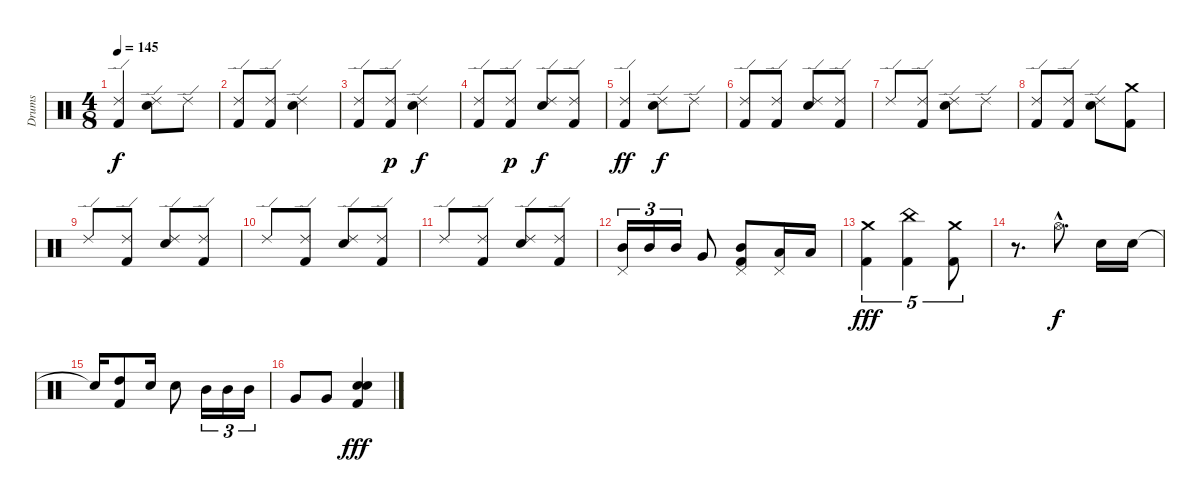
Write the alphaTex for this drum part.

\track ("Drums" "Drums") {instrument percussion}
\staff {score}
\articulation defaults
\ts (4 8)
\tempo 145
\clef neutral
\ks c
("Ride (edge) 2" "Kick (hit) 2").4{dy f} ("Ride (edge) 2" "Snare (hit) 2").8 "Ride (edge) 2".8 |
("Ride (edge) 2" "Kick (hit) 2").8 ("Ride (edge) 2" "Kick (hit) 2").8 ("Ride (edge) 2" "Snare (hit) 2").4 |
("Ride (edge) 2" "Kick (hit) 2").8 ("Ride (edge) 2" "Kick (hit) 2").8{dy p} ("Ride (edge) 2" "Snare (hit) 2").4{dy f} |
("Ride (edge) 2" "Kick (hit) 2").8 ("Ride (edge) 2" "Kick (hit) 2").8{dy p} ("Ride (edge) 2" "Snare (hit) 2").8{dy f} ("Ride (edge) 2" "Kick (hit) 2").8 |
("Ride (edge) 2" "Kick (hit) 2").4{dy ff} ("Ride (edge) 2" "Snare (hit) 2").8{dy f} "Ride (edge) 2".8 |
("Ride (edge) 2" "Kick (hit) 2").8 ("Ride (edge) 2" "Kick (hit) 2").8 ("Ride (edge) 2" "Snare (hit) 2").8 ("Ride (edge) 2" "Kick (hit) 2").8 |
"Ride (edge) 2".8 ("Ride (edge) 2" "Kick (hit) 2").8 ("Ride (edge) 2" "Snare (hit) 2").8 "Ride (edge) 2".8 |
("Ride (edge) 2" "Kick (hit) 2").8 ("Ride (edge) 2" "Kick (hit) 2").8 ("Ride (edge) 2" "Snare (hit) 2").8 ("Crash medium (hit)" "Kick (hit) 2").8 |
"Ride (edge) 2".8 ("Ride (edge) 2" "Kick (hit) 2").8 ("Ride (edge) 2" "Snare (hit) 2").8 ("Ride (edge) 2" "Kick (hit) 2").8 |
"Ride (edge) 2".8 ("Ride (edge) 2" "Kick (hit) 2").8 ("Ride (edge) 2" "Snare (hit) 2").8 ("Ride (edge) 2" "Kick (hit) 2").8 |
"Ride (edge) 2".8 ("Ride (edge) 2" "Kick (hit) 2").8 ("Ride (edge) 2" "Snare (hit) 2").8 ("Ride (edge) 2" "Kick (hit) 2").8 |
("Mid Tom (hit)" "Pedal Hi-Hat (hit)").16{tu (3 2)} "Mid Tom (hit)".16{tu (3 2)} "Mid Tom (hit)".16{tu (3 2)} "Very Low Tom (hit)".8 ("Mid Tom (hit)" "Pedal Hi-Hat (hit)" "Kick (hit) 2").8 ("Low Tom (hit)" "Pedal Hi-Hat (hit)").16 "Low Tom (hit)".16 |
("Crash medium (hit)" "Kick (hit) 2").4{tu (5 4) dy fff} ("China (hit)" "Kick (hit) 2").4{tu (5 4)} ("Crash medium (hit)" "Kick (hit) 2").8{tu (5 4)} |
r.8{d} "Hi-Hat (open)"{hac}.8{d dy f} "Snare (hit) 2".16 "Snare (hit) 2".16 |
"Snare (hit)"{t}.16 ("High Tom (hit)" "Kick (hit) 2").8 "Snare (hit) 2".16 "Snare (hit) 2".8 "Mid Tom (hit)".16{tu (3 2)} "Mid Tom (hit)".16{tu (3 2)} "Mid Tom (hit)".16{tu (3 2)} |
"Very Low Tom (hit)".8 "Very Low Tom (hit)".8 ("Snare (hit) 2" "Snare (hit) 2" "Kick (hit) 2").4{dy fff}
